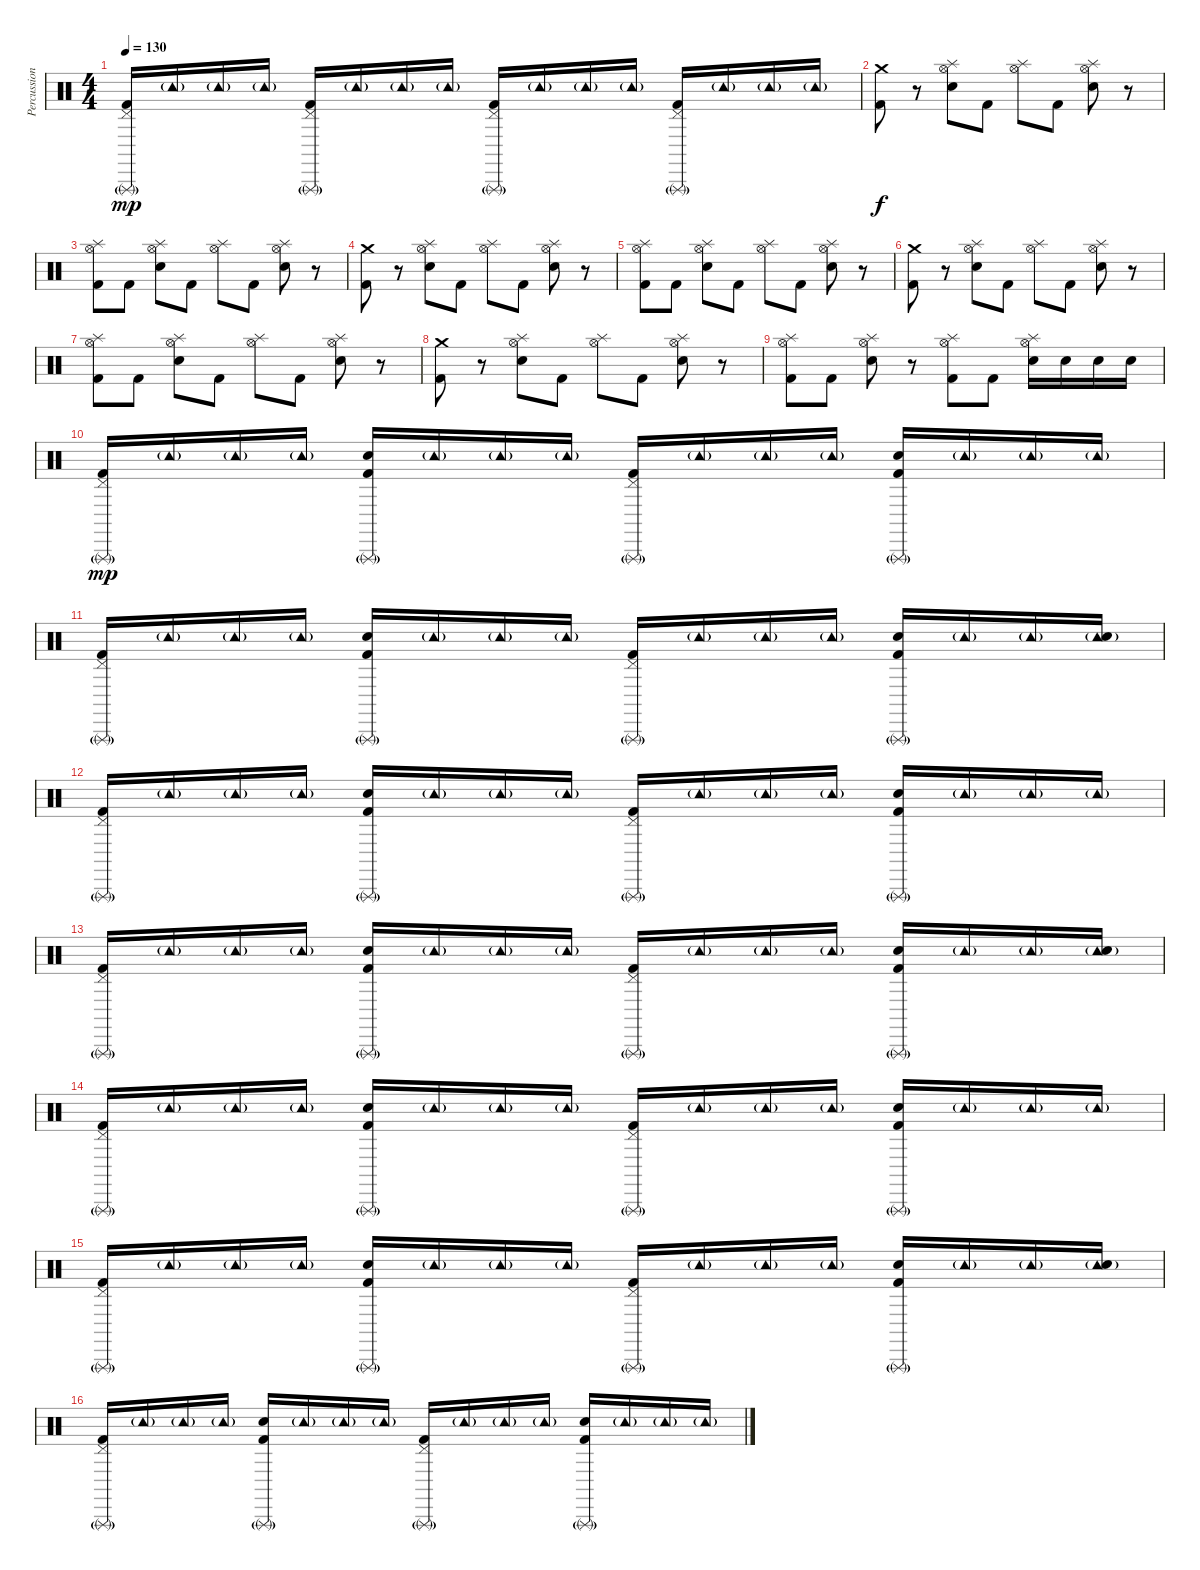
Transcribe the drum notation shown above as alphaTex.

\track ("Percussion" "Percussion") {instrument percussion}
\staff {score}
\articulation defaults
\ts (4 4)
\tempo 130
\clef neutral
\ks c
("Triangle (rnute)"{g} "Pedal Hi-Hat (hit)" "Kick (hit) 2").16{dy mp} "Tambourine (hit)"{g}.16 "Tambourine (hit)"{g}.16 "Tambourine (hit)"{g}.16 ("Triangle (rnute)"{g} "Pedal Hi-Hat (hit)" "Kick (hit) 2").16 "Tambourine (hit)"{g}.16 "Tambourine (hit)"{g}.16 "Tambourine (hit)"{g}.16 ("Triangle (rnute)"{g} "Pedal Hi-Hat (hit)" "Kick (hit) 2").16 "Tambourine (hit)"{g}.16 "Tambourine (hit)"{g}.16 "Tambourine (hit)"{g}.16 ("Triangle (rnute)"{g} "Pedal Hi-Hat (hit)" "Kick (hit) 2").16 "Tambourine (hit)"{g}.16 "Tambourine (hit)"{g}.16 "Tambourine (hit)"{g}.16 |
("Crash medium (hit)" "Kick (hit) 2").8{dy f} r.8 ("Splash (hit)" "Hi-Hat (open)" "Electric Snare (hit)").8 "Kick (hit) 2".8 ("Splash (hit)" "Hi-Hat (open)").8 "Kick (hit) 2".8 ("Splash (hit)" "Hi-Hat (open)" "Electric Snare (hit)").8 r.8 |
("Splash (hit)" "Hi-Hat (open)" "Kick (hit) 2").8 "Kick (hit) 2".8 ("Splash (hit)" "Hi-Hat (open)" "Electric Snare (hit)").8 "Kick (hit) 2".8 ("Splash (hit)" "Hi-Hat (open)").8 "Kick (hit) 2".8 ("Splash (hit)" "Hi-Hat (open)" "Electric Snare (hit)").8 r.8 |
("Crash medium (hit)" "Kick (hit) 2").8 r.8 ("Splash (hit)" "Hi-Hat (open)" "Electric Snare (hit)").8 "Kick (hit) 2".8 ("Splash (hit)" "Hi-Hat (open)").8 "Kick (hit) 2".8 ("Splash (hit)" "Hi-Hat (open)" "Electric Snare (hit)").8 r.8 |
("Splash (hit)" "Hi-Hat (open)" "Kick (hit) 2").8 "Kick (hit) 2".8 ("Splash (hit)" "Hi-Hat (open)" "Electric Snare (hit)").8 "Kick (hit) 2".8 ("Splash (hit)" "Hi-Hat (open)").8 "Kick (hit) 2".8 ("Splash (hit)" "Hi-Hat (open)" "Electric Snare (hit)").8 r.8 |
("Crash medium (hit)" "Kick (hit) 2").8 r.8 ("Splash (hit)" "Hi-Hat (open)" "Electric Snare (hit)").8 "Kick (hit) 2".8 ("Splash (hit)" "Hi-Hat (open)").8 "Kick (hit) 2".8 ("Splash (hit)" "Hi-Hat (open)" "Electric Snare (hit)").8 r.8 |
("Splash (hit)" "Hi-Hat (open)" "Kick (hit) 2").8 "Kick (hit) 2".8 ("Splash (hit)" "Hi-Hat (open)" "Electric Snare (hit)").8 "Kick (hit) 2".8 ("Splash (hit)" "Hi-Hat (open)").8 "Kick (hit) 2".8 ("Splash (hit)" "Hi-Hat (open)" "Electric Snare (hit)").8 r.8 |
("Crash medium (hit)" "Kick (hit) 2").8 r.8 ("Splash (hit)" "Hi-Hat (open)" "Electric Snare (hit)").8 "Kick (hit) 2".8 ("Splash (hit)" "Hi-Hat (open)").8 "Kick (hit) 2".8 ("Splash (hit)" "Hi-Hat (open)" "Electric Snare (hit)").8 r.8 |
("Splash (hit)" "Hi-Hat (open)" "Kick (hit) 2").8 "Kick (hit) 2".8 ("Splash (hit)" "Hi-Hat (open)" "Electric Snare (hit)").8 r.8 ("Splash (hit)" "Hi-Hat (open)" "Kick (hit) 2").8 "Kick (hit) 2".8 ("Splash (hit)" "Hi-Hat (open)" "Electric Snare (hit)").16 "Electric Snare (hit)".16 "Electric Snare (hit)".16 "Electric Snare (hit)".16 |
("Triangle (rnute)"{g} "Pedal Hi-Hat (hit)" "Kick (hit) 2").16{dy mp} "Tambourine (hit)"{g}.16 "Tambourine (hit)"{g}.16 "Tambourine (hit)"{g}.16 ("Triangle (rnute)"{g} "Electric Snare (hit)" "Kick (hit) 2").16 "Tambourine (hit)"{g}.16 "Tambourine (hit)"{g}.16 "Tambourine (hit)"{g}.16 ("Triangle (rnute)"{g} "Pedal Hi-Hat (hit)" "Kick (hit) 2").16 "Tambourine (hit)"{g}.16 "Tambourine (hit)"{g}.16 "Tambourine (hit)"{g}.16 ("Triangle (rnute)"{g} "Electric Snare (hit)" "Kick (hit) 2").16 "Tambourine (hit)"{g}.16 "Tambourine (hit)"{g}.16 "Tambourine (hit)"{g}.16 |
("Triangle (rnute)"{g} "Pedal Hi-Hat (hit)" "Kick (hit) 2").16 "Tambourine (hit)"{g}.16 "Tambourine (hit)"{g}.16 "Tambourine (hit)"{g}.16 ("Triangle (rnute)"{g} "Electric Snare (hit)" "Kick (hit) 2").16 "Tambourine (hit)"{g}.16 "Tambourine (hit)"{g}.16 "Tambourine (hit)"{g}.16 ("Triangle (rnute)"{g} "Pedal Hi-Hat (hit)" "Kick (hit) 2").16 "Tambourine (hit)"{g}.16 "Tambourine (hit)"{g}.16 "Tambourine (hit)"{g}.16 ("Triangle (rnute)"{g} "Electric Snare (hit)" "Kick (hit) 2").16 "Tambourine (hit)"{g}.16 "Tambourine (hit)"{g}.16 ("Tambourine (hit)"{g} "Electric Snare (hit)").16 |
("Triangle (rnute)"{g} "Pedal Hi-Hat (hit)" "Kick (hit) 2").16 "Tambourine (hit)"{g}.16 "Tambourine (hit)"{g}.16 "Tambourine (hit)"{g}.16 ("Triangle (rnute)"{g} "Electric Snare (hit)" "Kick (hit) 2").16 "Tambourine (hit)"{g}.16 "Tambourine (hit)"{g}.16 "Tambourine (hit)"{g}.16 ("Triangle (rnute)"{g} "Pedal Hi-Hat (hit)" "Kick (hit) 2").16 "Tambourine (hit)"{g}.16 "Tambourine (hit)"{g}.16 "Tambourine (hit)"{g}.16 ("Triangle (rnute)"{g} "Electric Snare (hit)" "Kick (hit) 2").16 "Tambourine (hit)"{g}.16 "Tambourine (hit)"{g}.16 "Tambourine (hit)"{g}.16 |
("Triangle (rnute)"{g} "Pedal Hi-Hat (hit)" "Kick (hit) 2").16 "Tambourine (hit)"{g}.16 "Tambourine (hit)"{g}.16 "Tambourine (hit)"{g}.16 ("Triangle (rnute)"{g} "Electric Snare (hit)" "Kick (hit) 2").16 "Tambourine (hit)"{g}.16 "Tambourine (hit)"{g}.16 "Tambourine (hit)"{g}.16 ("Triangle (rnute)"{g} "Pedal Hi-Hat (hit)" "Kick (hit) 2").16 "Tambourine (hit)"{g}.16 "Tambourine (hit)"{g}.16 "Tambourine (hit)"{g}.16 ("Triangle (rnute)"{g} "Electric Snare (hit)" "Kick (hit) 2").16 "Tambourine (hit)"{g}.16 "Tambourine (hit)"{g}.16 ("Tambourine (hit)"{g} "Electric Snare (hit)").16 |
("Triangle (rnute)"{g} "Pedal Hi-Hat (hit)" "Kick (hit) 2").16 "Tambourine (hit)"{g}.16 "Tambourine (hit)"{g}.16 "Tambourine (hit)"{g}.16 ("Triangle (rnute)"{g} "Electric Snare (hit)" "Kick (hit) 2").16 "Tambourine (hit)"{g}.16 "Tambourine (hit)"{g}.16 "Tambourine (hit)"{g}.16 ("Triangle (rnute)"{g} "Pedal Hi-Hat (hit)" "Kick (hit) 2").16 "Tambourine (hit)"{g}.16 "Tambourine (hit)"{g}.16 "Tambourine (hit)"{g}.16 ("Triangle (rnute)"{g} "Electric Snare (hit)" "Kick (hit) 2").16 "Tambourine (hit)"{g}.16 "Tambourine (hit)"{g}.16 "Tambourine (hit)"{g}.16 |
("Triangle (rnute)"{g} "Pedal Hi-Hat (hit)" "Kick (hit) 2").16 "Tambourine (hit)"{g}.16 "Tambourine (hit)"{g}.16 "Tambourine (hit)"{g}.16 ("Triangle (rnute)"{g} "Electric Snare (hit)" "Kick (hit) 2").16 "Tambourine (hit)"{g}.16 "Tambourine (hit)"{g}.16 "Tambourine (hit)"{g}.16 ("Triangle (rnute)"{g} "Pedal Hi-Hat (hit)" "Kick (hit) 2").16 "Tambourine (hit)"{g}.16 "Tambourine (hit)"{g}.16 "Tambourine (hit)"{g}.16 ("Triangle (rnute)"{g} "Electric Snare (hit)" "Kick (hit) 2").16 "Tambourine (hit)"{g}.16 "Tambourine (hit)"{g}.16 ("Tambourine (hit)"{g} "Electric Snare (hit)").16 |
("Triangle (rnute)"{g} "Pedal Hi-Hat (hit)" "Kick (hit) 2").16 "Tambourine (hit)"{g}.16 "Tambourine (hit)"{g}.16 "Tambourine (hit)"{g}.16 ("Triangle (rnute)"{g} "Electric Snare (hit)" "Kick (hit) 2").16 "Tambourine (hit)"{g}.16 "Tambourine (hit)"{g}.16 "Tambourine (hit)"{g}.16 ("Triangle (rnute)"{g} "Pedal Hi-Hat (hit)" "Kick (hit) 2").16 "Tambourine (hit)"{g}.16 "Tambourine (hit)"{g}.16 "Tambourine (hit)"{g}.16 ("Triangle (rnute)"{g} "Electric Snare (hit)" "Kick (hit) 2").16 "Tambourine (hit)"{g}.16 "Tambourine (hit)"{g}.16 "Tambourine (hit)"{g}.16
